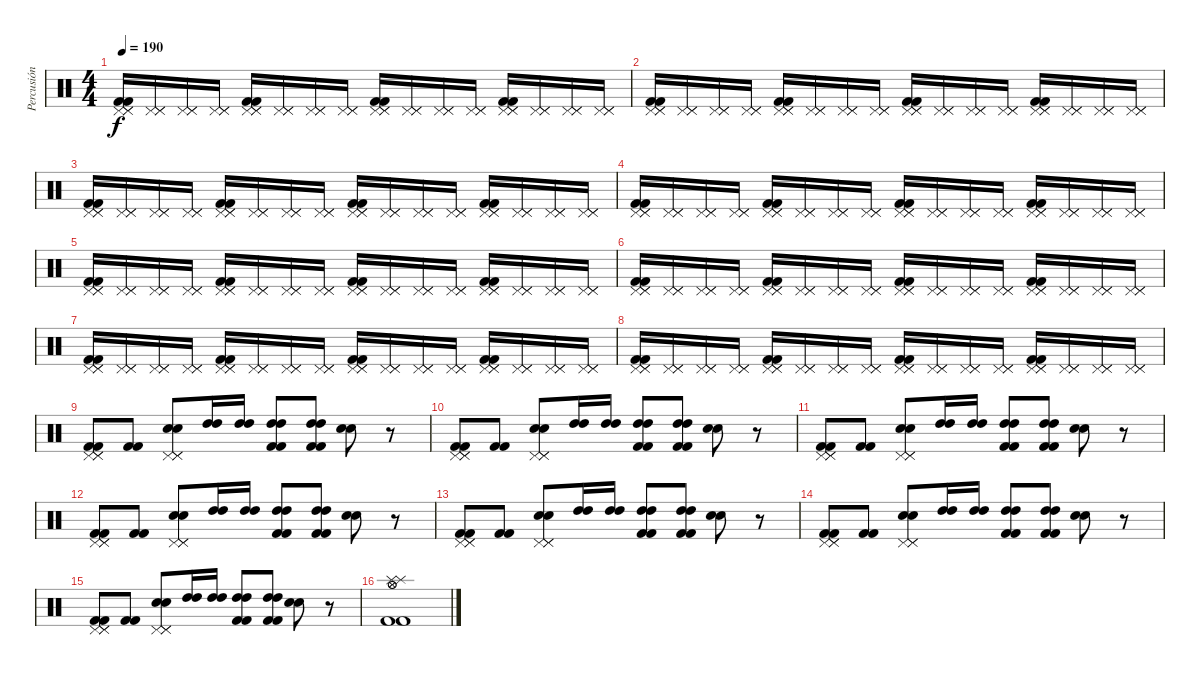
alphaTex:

\track ("Percusión" "Percusión") {instrument percussion}
\staff {score}
\articulation defaults
\ts (4 4)
\tempo 190
\clef neutral
\ks c
("Pedal Hi-Hat (hit)" "Pedal Hi-Hat (hit)" "Pedal Hi-Hat (hit)" "Kick (hit) 2" "Kick (hit) 2").16{dy f} ("Pedal Hi-Hat (hit)" "Pedal Hi-Hat (hit)" "Pedal Hi-Hat (hit)").16 ("Pedal Hi-Hat (hit)" "Pedal Hi-Hat (hit)" "Pedal Hi-Hat (hit)").16 ("Pedal Hi-Hat (hit)" "Pedal Hi-Hat (hit)" "Pedal Hi-Hat (hit)").16 ("Pedal Hi-Hat (hit)" "Pedal Hi-Hat (hit)" "Pedal Hi-Hat (hit)" "Kick (hit) 2" "Kick (hit) 2").16 ("Pedal Hi-Hat (hit)" "Pedal Hi-Hat (hit)" "Pedal Hi-Hat (hit)").16 ("Pedal Hi-Hat (hit)" "Pedal Hi-Hat (hit)" "Pedal Hi-Hat (hit)").16 ("Pedal Hi-Hat (hit)" "Pedal Hi-Hat (hit)" "Pedal Hi-Hat (hit)").16 ("Pedal Hi-Hat (hit)" "Pedal Hi-Hat (hit)" "Pedal Hi-Hat (hit)" "Kick (hit) 2" "Kick (hit) 2").16 ("Pedal Hi-Hat (hit)" "Pedal Hi-Hat (hit)" "Pedal Hi-Hat (hit)").16 ("Pedal Hi-Hat (hit)" "Pedal Hi-Hat (hit)" "Pedal Hi-Hat (hit)").16 ("Pedal Hi-Hat (hit)" "Pedal Hi-Hat (hit)" "Pedal Hi-Hat (hit)").16 ("Pedal Hi-Hat (hit)" "Pedal Hi-Hat (hit)" "Pedal Hi-Hat (hit)" "Kick (hit) 2" "Kick (hit) 2").16 ("Pedal Hi-Hat (hit)" "Pedal Hi-Hat (hit)" "Pedal Hi-Hat (hit)").16 ("Pedal Hi-Hat (hit)" "Pedal Hi-Hat (hit)" "Pedal Hi-Hat (hit)").16 ("Pedal Hi-Hat (hit)" "Pedal Hi-Hat (hit)" "Pedal Hi-Hat (hit)").16 |
("Pedal Hi-Hat (hit)" "Pedal Hi-Hat (hit)" "Pedal Hi-Hat (hit)" "Kick (hit) 2" "Kick (hit) 2").16 ("Pedal Hi-Hat (hit)" "Pedal Hi-Hat (hit)" "Pedal Hi-Hat (hit)").16 ("Pedal Hi-Hat (hit)" "Pedal Hi-Hat (hit)" "Pedal Hi-Hat (hit)").16 ("Pedal Hi-Hat (hit)" "Pedal Hi-Hat (hit)" "Pedal Hi-Hat (hit)").16 ("Pedal Hi-Hat (hit)" "Pedal Hi-Hat (hit)" "Pedal Hi-Hat (hit)" "Kick (hit) 2" "Kick (hit) 2").16 ("Pedal Hi-Hat (hit)" "Pedal Hi-Hat (hit)" "Pedal Hi-Hat (hit)").16 ("Pedal Hi-Hat (hit)" "Pedal Hi-Hat (hit)" "Pedal Hi-Hat (hit)").16 ("Pedal Hi-Hat (hit)" "Pedal Hi-Hat (hit)" "Pedal Hi-Hat (hit)").16 ("Pedal Hi-Hat (hit)" "Pedal Hi-Hat (hit)" "Pedal Hi-Hat (hit)" "Kick (hit) 2" "Kick (hit) 2").16 ("Pedal Hi-Hat (hit)" "Pedal Hi-Hat (hit)" "Pedal Hi-Hat (hit)").16 ("Pedal Hi-Hat (hit)" "Pedal Hi-Hat (hit)" "Pedal Hi-Hat (hit)").16 ("Pedal Hi-Hat (hit)" "Pedal Hi-Hat (hit)" "Pedal Hi-Hat (hit)").16 ("Pedal Hi-Hat (hit)" "Pedal Hi-Hat (hit)" "Pedal Hi-Hat (hit)" "Kick (hit) 2" "Kick (hit) 2").16 ("Pedal Hi-Hat (hit)" "Pedal Hi-Hat (hit)" "Pedal Hi-Hat (hit)").16 ("Pedal Hi-Hat (hit)" "Pedal Hi-Hat (hit)" "Pedal Hi-Hat (hit)").16 ("Pedal Hi-Hat (hit)" "Pedal Hi-Hat (hit)" "Pedal Hi-Hat (hit)").16 |
("Pedal Hi-Hat (hit)" "Pedal Hi-Hat (hit)" "Pedal Hi-Hat (hit)" "Kick (hit) 2" "Kick (hit) 2").16 ("Pedal Hi-Hat (hit)" "Pedal Hi-Hat (hit)" "Pedal Hi-Hat (hit)").16 ("Pedal Hi-Hat (hit)" "Pedal Hi-Hat (hit)" "Pedal Hi-Hat (hit)").16 ("Pedal Hi-Hat (hit)" "Pedal Hi-Hat (hit)" "Pedal Hi-Hat (hit)").16 ("Pedal Hi-Hat (hit)" "Pedal Hi-Hat (hit)" "Pedal Hi-Hat (hit)" "Kick (hit) 2" "Kick (hit) 2").16 ("Pedal Hi-Hat (hit)" "Pedal Hi-Hat (hit)" "Pedal Hi-Hat (hit)").16 ("Pedal Hi-Hat (hit)" "Pedal Hi-Hat (hit)" "Pedal Hi-Hat (hit)").16 ("Pedal Hi-Hat (hit)" "Pedal Hi-Hat (hit)" "Pedal Hi-Hat (hit)").16 ("Pedal Hi-Hat (hit)" "Pedal Hi-Hat (hit)" "Pedal Hi-Hat (hit)" "Kick (hit) 2" "Kick (hit) 2").16 ("Pedal Hi-Hat (hit)" "Pedal Hi-Hat (hit)" "Pedal Hi-Hat (hit)").16 ("Pedal Hi-Hat (hit)" "Pedal Hi-Hat (hit)" "Pedal Hi-Hat (hit)").16 ("Pedal Hi-Hat (hit)" "Pedal Hi-Hat (hit)" "Pedal Hi-Hat (hit)").16 ("Pedal Hi-Hat (hit)" "Pedal Hi-Hat (hit)" "Pedal Hi-Hat (hit)" "Kick (hit) 2" "Kick (hit) 2").16 ("Pedal Hi-Hat (hit)" "Pedal Hi-Hat (hit)" "Pedal Hi-Hat (hit)").16 ("Pedal Hi-Hat (hit)" "Pedal Hi-Hat (hit)" "Pedal Hi-Hat (hit)").16 ("Pedal Hi-Hat (hit)" "Pedal Hi-Hat (hit)" "Pedal Hi-Hat (hit)").16 |
("Pedal Hi-Hat (hit)" "Pedal Hi-Hat (hit)" "Pedal Hi-Hat (hit)" "Kick (hit) 2" "Kick (hit) 2").16 ("Pedal Hi-Hat (hit)" "Pedal Hi-Hat (hit)" "Pedal Hi-Hat (hit)").16 ("Pedal Hi-Hat (hit)" "Pedal Hi-Hat (hit)" "Pedal Hi-Hat (hit)").16 ("Pedal Hi-Hat (hit)" "Pedal Hi-Hat (hit)" "Pedal Hi-Hat (hit)").16 ("Pedal Hi-Hat (hit)" "Pedal Hi-Hat (hit)" "Pedal Hi-Hat (hit)" "Kick (hit) 2" "Kick (hit) 2").16 ("Pedal Hi-Hat (hit)" "Pedal Hi-Hat (hit)" "Pedal Hi-Hat (hit)").16 ("Pedal Hi-Hat (hit)" "Pedal Hi-Hat (hit)" "Pedal Hi-Hat (hit)").16 ("Pedal Hi-Hat (hit)" "Pedal Hi-Hat (hit)" "Pedal Hi-Hat (hit)").16 ("Pedal Hi-Hat (hit)" "Pedal Hi-Hat (hit)" "Pedal Hi-Hat (hit)" "Kick (hit) 2" "Kick (hit) 2").16 ("Pedal Hi-Hat (hit)" "Pedal Hi-Hat (hit)" "Pedal Hi-Hat (hit)").16 ("Pedal Hi-Hat (hit)" "Pedal Hi-Hat (hit)" "Pedal Hi-Hat (hit)").16 ("Pedal Hi-Hat (hit)" "Pedal Hi-Hat (hit)" "Pedal Hi-Hat (hit)").16 ("Pedal Hi-Hat (hit)" "Pedal Hi-Hat (hit)" "Pedal Hi-Hat (hit)" "Kick (hit) 2" "Kick (hit) 2").16 ("Pedal Hi-Hat (hit)" "Pedal Hi-Hat (hit)" "Pedal Hi-Hat (hit)").16 ("Pedal Hi-Hat (hit)" "Pedal Hi-Hat (hit)" "Pedal Hi-Hat (hit)").16 ("Pedal Hi-Hat (hit)" "Pedal Hi-Hat (hit)" "Pedal Hi-Hat (hit)").16 |
("Pedal Hi-Hat (hit)" "Pedal Hi-Hat (hit)" "Pedal Hi-Hat (hit)" "Kick (hit) 2" "Kick (hit) 2").16 ("Pedal Hi-Hat (hit)" "Pedal Hi-Hat (hit)" "Pedal Hi-Hat (hit)").16 ("Pedal Hi-Hat (hit)" "Pedal Hi-Hat (hit)" "Pedal Hi-Hat (hit)").16 ("Pedal Hi-Hat (hit)" "Pedal Hi-Hat (hit)" "Pedal Hi-Hat (hit)").16 ("Pedal Hi-Hat (hit)" "Pedal Hi-Hat (hit)" "Pedal Hi-Hat (hit)" "Kick (hit) 2" "Kick (hit) 2").16 ("Pedal Hi-Hat (hit)" "Pedal Hi-Hat (hit)" "Pedal Hi-Hat (hit)").16 ("Pedal Hi-Hat (hit)" "Pedal Hi-Hat (hit)" "Pedal Hi-Hat (hit)").16 ("Pedal Hi-Hat (hit)" "Pedal Hi-Hat (hit)" "Pedal Hi-Hat (hit)").16 ("Pedal Hi-Hat (hit)" "Pedal Hi-Hat (hit)" "Pedal Hi-Hat (hit)" "Kick (hit) 2" "Kick (hit) 2").16 ("Pedal Hi-Hat (hit)" "Pedal Hi-Hat (hit)" "Pedal Hi-Hat (hit)").16 ("Pedal Hi-Hat (hit)" "Pedal Hi-Hat (hit)" "Pedal Hi-Hat (hit)").16 ("Pedal Hi-Hat (hit)" "Pedal Hi-Hat (hit)" "Pedal Hi-Hat (hit)").16 ("Pedal Hi-Hat (hit)" "Pedal Hi-Hat (hit)" "Pedal Hi-Hat (hit)" "Kick (hit) 2" "Kick (hit) 2").16 ("Pedal Hi-Hat (hit)" "Pedal Hi-Hat (hit)" "Pedal Hi-Hat (hit)").16 ("Pedal Hi-Hat (hit)" "Pedal Hi-Hat (hit)" "Pedal Hi-Hat (hit)").16 ("Pedal Hi-Hat (hit)" "Pedal Hi-Hat (hit)" "Pedal Hi-Hat (hit)").16 |
("Pedal Hi-Hat (hit)" "Pedal Hi-Hat (hit)" "Pedal Hi-Hat (hit)" "Kick (hit) 2" "Kick (hit) 2").16 ("Pedal Hi-Hat (hit)" "Pedal Hi-Hat (hit)" "Pedal Hi-Hat (hit)").16 ("Pedal Hi-Hat (hit)" "Pedal Hi-Hat (hit)" "Pedal Hi-Hat (hit)").16 ("Pedal Hi-Hat (hit)" "Pedal Hi-Hat (hit)" "Pedal Hi-Hat (hit)").16 ("Pedal Hi-Hat (hit)" "Pedal Hi-Hat (hit)" "Pedal Hi-Hat (hit)" "Kick (hit) 2" "Kick (hit) 2").16 ("Pedal Hi-Hat (hit)" "Pedal Hi-Hat (hit)" "Pedal Hi-Hat (hit)").16 ("Pedal Hi-Hat (hit)" "Pedal Hi-Hat (hit)" "Pedal Hi-Hat (hit)").16 ("Pedal Hi-Hat (hit)" "Pedal Hi-Hat (hit)" "Pedal Hi-Hat (hit)").16 ("Pedal Hi-Hat (hit)" "Pedal Hi-Hat (hit)" "Pedal Hi-Hat (hit)" "Kick (hit) 2" "Kick (hit) 2").16 ("Pedal Hi-Hat (hit)" "Pedal Hi-Hat (hit)" "Pedal Hi-Hat (hit)").16 ("Pedal Hi-Hat (hit)" "Pedal Hi-Hat (hit)" "Pedal Hi-Hat (hit)").16 ("Pedal Hi-Hat (hit)" "Pedal Hi-Hat (hit)" "Pedal Hi-Hat (hit)").16 ("Pedal Hi-Hat (hit)" "Pedal Hi-Hat (hit)" "Pedal Hi-Hat (hit)" "Kick (hit) 2" "Kick (hit) 2").16 ("Pedal Hi-Hat (hit)" "Pedal Hi-Hat (hit)" "Pedal Hi-Hat (hit)").16 ("Pedal Hi-Hat (hit)" "Pedal Hi-Hat (hit)" "Pedal Hi-Hat (hit)").16 ("Pedal Hi-Hat (hit)" "Pedal Hi-Hat (hit)" "Pedal Hi-Hat (hit)").16 |
("Pedal Hi-Hat (hit)" "Pedal Hi-Hat (hit)" "Pedal Hi-Hat (hit)" "Kick (hit) 2" "Kick (hit) 2").16 ("Pedal Hi-Hat (hit)" "Pedal Hi-Hat (hit)" "Pedal Hi-Hat (hit)").16 ("Pedal Hi-Hat (hit)" "Pedal Hi-Hat (hit)" "Pedal Hi-Hat (hit)").16 ("Pedal Hi-Hat (hit)" "Pedal Hi-Hat (hit)" "Pedal Hi-Hat (hit)").16 ("Pedal Hi-Hat (hit)" "Pedal Hi-Hat (hit)" "Pedal Hi-Hat (hit)" "Kick (hit) 2" "Kick (hit) 2").16 ("Pedal Hi-Hat (hit)" "Pedal Hi-Hat (hit)" "Pedal Hi-Hat (hit)").16 ("Pedal Hi-Hat (hit)" "Pedal Hi-Hat (hit)" "Pedal Hi-Hat (hit)").16 ("Pedal Hi-Hat (hit)" "Pedal Hi-Hat (hit)" "Pedal Hi-Hat (hit)").16 ("Pedal Hi-Hat (hit)" "Pedal Hi-Hat (hit)" "Pedal Hi-Hat (hit)" "Kick (hit) 2" "Kick (hit) 2").16 ("Pedal Hi-Hat (hit)" "Pedal Hi-Hat (hit)" "Pedal Hi-Hat (hit)").16 ("Pedal Hi-Hat (hit)" "Pedal Hi-Hat (hit)" "Pedal Hi-Hat (hit)").16 ("Pedal Hi-Hat (hit)" "Pedal Hi-Hat (hit)" "Pedal Hi-Hat (hit)").16 ("Pedal Hi-Hat (hit)" "Pedal Hi-Hat (hit)" "Pedal Hi-Hat (hit)" "Kick (hit) 2" "Kick (hit) 2").16 ("Pedal Hi-Hat (hit)" "Pedal Hi-Hat (hit)" "Pedal Hi-Hat (hit)").16 ("Pedal Hi-Hat (hit)" "Pedal Hi-Hat (hit)" "Pedal Hi-Hat (hit)").16 ("Pedal Hi-Hat (hit)" "Pedal Hi-Hat (hit)" "Pedal Hi-Hat (hit)").16 |
("Pedal Hi-Hat (hit)" "Pedal Hi-Hat (hit)" "Pedal Hi-Hat (hit)" "Kick (hit) 2" "Kick (hit) 2").16 ("Pedal Hi-Hat (hit)" "Pedal Hi-Hat (hit)" "Pedal Hi-Hat (hit)").16 ("Pedal Hi-Hat (hit)" "Pedal Hi-Hat (hit)" "Pedal Hi-Hat (hit)").16 ("Pedal Hi-Hat (hit)" "Pedal Hi-Hat (hit)" "Pedal Hi-Hat (hit)").16 ("Pedal Hi-Hat (hit)" "Pedal Hi-Hat (hit)" "Pedal Hi-Hat (hit)" "Kick (hit) 2" "Kick (hit) 2").16 ("Pedal Hi-Hat (hit)" "Pedal Hi-Hat (hit)" "Pedal Hi-Hat (hit)").16 ("Pedal Hi-Hat (hit)" "Pedal Hi-Hat (hit)" "Pedal Hi-Hat (hit)").16 ("Pedal Hi-Hat (hit)" "Pedal Hi-Hat (hit)" "Pedal Hi-Hat (hit)").16 ("Pedal Hi-Hat (hit)" "Pedal Hi-Hat (hit)" "Pedal Hi-Hat (hit)" "Kick (hit) 2" "Kick (hit) 2").16 ("Pedal Hi-Hat (hit)" "Pedal Hi-Hat (hit)" "Pedal Hi-Hat (hit)").16 ("Pedal Hi-Hat (hit)" "Pedal Hi-Hat (hit)" "Pedal Hi-Hat (hit)").16 ("Pedal Hi-Hat (hit)" "Pedal Hi-Hat (hit)" "Pedal Hi-Hat (hit)").16 ("Pedal Hi-Hat (hit)" "Pedal Hi-Hat (hit)" "Pedal Hi-Hat (hit)" "Kick (hit) 2" "Kick (hit) 2").16 ("Pedal Hi-Hat (hit)" "Pedal Hi-Hat (hit)" "Pedal Hi-Hat (hit)").16 ("Pedal Hi-Hat (hit)" "Pedal Hi-Hat (hit)" "Pedal Hi-Hat (hit)").16 ("Pedal Hi-Hat (hit)" "Pedal Hi-Hat (hit)" "Pedal Hi-Hat (hit)").16 |
("Kick (hit) 2" "Kick (hit) 2" "Pedal Hi-Hat (hit)" "Pedal Hi-Hat (hit)" "Pedal Hi-Hat (hit)").8 ("Kick (hit) 2" "Kick (hit) 2").8 ("Snare (hit) 2" "Snare (hit) 2" "Pedal Hi-Hat (hit)" "Pedal Hi-Hat (hit)" "Pedal Hi-Hat (hit)").8 ("High Tom (hit)" "High Tom (hit)").16 ("High Tom (hit)" "High Tom (hit)").16 ("High Tom (hit)" "High Tom (hit)" "Kick (hit) 2" "Kick (hit) 2").8 ("High Tom (hit)" "High Tom (hit)" "Kick (hit) 2" "Kick (hit) 2").8 ("Snare (hit) 2" "Snare (hit) 2").8 r.8 |
("Kick (hit) 2" "Kick (hit) 2" "Pedal Hi-Hat (hit)" "Pedal Hi-Hat (hit)" "Pedal Hi-Hat (hit)").8 ("Kick (hit) 2" "Kick (hit) 2").8 ("Snare (hit) 2" "Snare (hit) 2" "Pedal Hi-Hat (hit)" "Pedal Hi-Hat (hit)" "Pedal Hi-Hat (hit)").8 ("High Tom (hit)" "High Tom (hit)").16 ("High Tom (hit)" "High Tom (hit)").16 ("High Tom (hit)" "High Tom (hit)" "Kick (hit) 2" "Kick (hit) 2").8 ("High Tom (hit)" "High Tom (hit)" "Kick (hit) 2" "Kick (hit) 2").8 ("Snare (hit) 2" "Snare (hit) 2").8 r.8 |
("Kick (hit) 2" "Kick (hit) 2" "Pedal Hi-Hat (hit)" "Pedal Hi-Hat (hit)" "Pedal Hi-Hat (hit)").8 ("Kick (hit) 2" "Kick (hit) 2").8 ("Snare (hit) 2" "Snare (hit) 2" "Pedal Hi-Hat (hit)" "Pedal Hi-Hat (hit)" "Pedal Hi-Hat (hit)").8 ("High Tom (hit)" "High Tom (hit)").16 ("High Tom (hit)" "High Tom (hit)").16 ("High Tom (hit)" "High Tom (hit)" "Kick (hit) 2" "Kick (hit) 2").8 ("High Tom (hit)" "High Tom (hit)" "Kick (hit) 2" "Kick (hit) 2").8 ("Snare (hit) 2" "Snare (hit) 2").8 r.8 |
("Kick (hit) 2" "Kick (hit) 2" "Pedal Hi-Hat (hit)" "Pedal Hi-Hat (hit)" "Pedal Hi-Hat (hit)").8 ("Kick (hit) 2" "Kick (hit) 2").8 ("Snare (hit) 2" "Snare (hit) 2" "Pedal Hi-Hat (hit)" "Pedal Hi-Hat (hit)" "Pedal Hi-Hat (hit)").8 ("High Tom (hit)" "High Tom (hit)").16 ("High Tom (hit)" "High Tom (hit)").16 ("High Tom (hit)" "High Tom (hit)" "Kick (hit) 2" "Kick (hit) 2").8 ("High Tom (hit)" "High Tom (hit)" "Kick (hit) 2" "Kick (hit) 2").8 ("Snare (hit) 2" "Snare (hit) 2").8 r.8 |
("Kick (hit) 2" "Kick (hit) 2" "Pedal Hi-Hat (hit)" "Pedal Hi-Hat (hit)" "Pedal Hi-Hat (hit)").8 ("Kick (hit) 2" "Kick (hit) 2").8 ("Snare (hit) 2" "Snare (hit) 2" "Pedal Hi-Hat (hit)" "Pedal Hi-Hat (hit)" "Pedal Hi-Hat (hit)").8 ("High Tom (hit)" "High Tom (hit)").16 ("High Tom (hit)" "High Tom (hit)").16 ("High Tom (hit)" "High Tom (hit)" "Kick (hit) 2" "Kick (hit) 2").8 ("High Tom (hit)" "High Tom (hit)" "Kick (hit) 2" "Kick (hit) 2").8 ("Snare (hit) 2" "Snare (hit) 2").8 r.8 |
("Kick (hit) 2" "Kick (hit) 2" "Pedal Hi-Hat (hit)" "Pedal Hi-Hat (hit)" "Pedal Hi-Hat (hit)").8 ("Kick (hit) 2" "Kick (hit) 2").8 ("Snare (hit) 2" "Snare (hit) 2" "Pedal Hi-Hat (hit)" "Pedal Hi-Hat (hit)" "Pedal Hi-Hat (hit)").8 ("High Tom (hit)" "High Tom (hit)").16 ("High Tom (hit)" "High Tom (hit)").16 ("High Tom (hit)" "High Tom (hit)" "Kick (hit) 2" "Kick (hit) 2").8 ("High Tom (hit)" "High Tom (hit)" "Kick (hit) 2" "Kick (hit) 2").8 ("Snare (hit) 2" "Snare (hit) 2").8 r.8 |
("Kick (hit) 2" "Kick (hit) 2" "Pedal Hi-Hat (hit)" "Pedal Hi-Hat (hit)" "Pedal Hi-Hat (hit)").8 ("Kick (hit) 2" "Kick (hit) 2").8 ("Snare (hit) 2" "Snare (hit) 2" "Pedal Hi-Hat (hit)" "Pedal Hi-Hat (hit)" "Pedal Hi-Hat (hit)").8 ("High Tom (hit)" "High Tom (hit)").16 ("High Tom (hit)" "High Tom (hit)").16 ("High Tom (hit)" "High Tom (hit)" "Kick (hit) 2" "Kick (hit) 2").8 ("High Tom (hit)" "High Tom (hit)" "Kick (hit) 2" "Kick (hit) 2").8 ("Snare (hit) 2" "Snare (hit) 2").8 r.8 |
("Hi-Hat (open)" "Hi-Hat (open)" "Kick (hit) 2" "Kick (hit) 2" "Splash (hit)" "Splash (hit)").1
